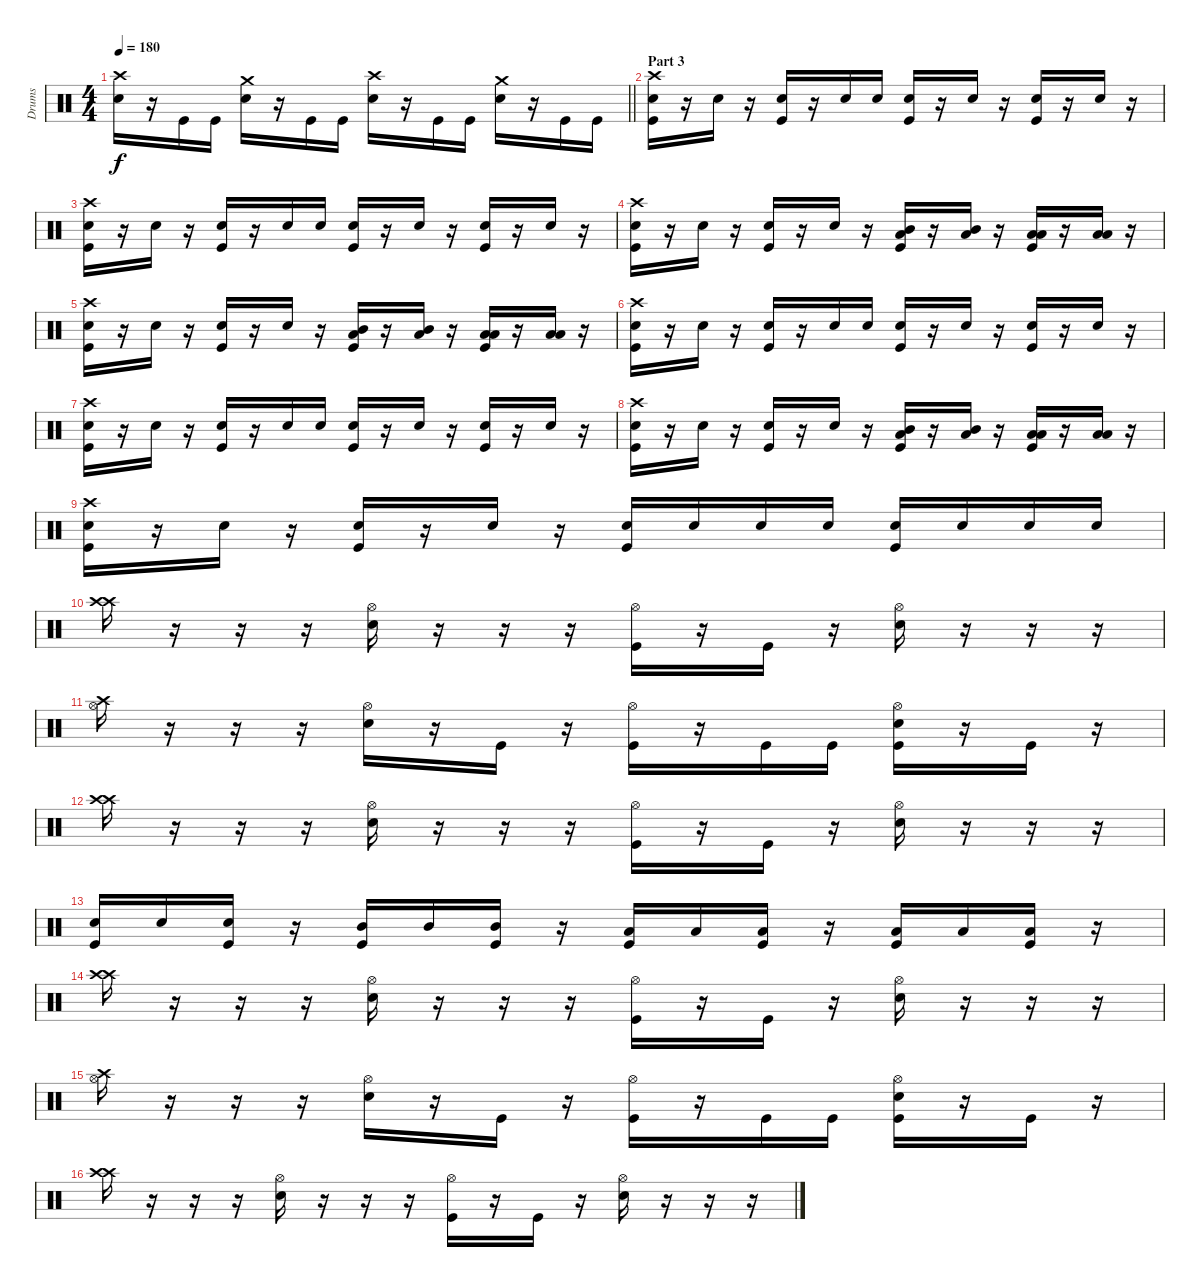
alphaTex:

\track ("Drums" "Drums") {instrument percussion}
\staff {score}
\articulation defaults
\ts (4 4)
\tempo 180
\clef neutral
\barLineRight lightlight
\ks c
("Crash high (hit)" "Electric Snare (hit)").16{dy f} r.16 "Kick (hit)".16 "Kick (hit)".16 ("Crash medium (hit)" "Electric Snare (hit)").16 r.16 "Kick (hit)".16 "Kick (hit)".16 ("Crash high (hit)" "Electric Snare (hit)").16 r.16 "Kick (hit)".16 "Kick (hit)".16 ("Crash medium (hit)" "Electric Snare (hit)").16 r.16 "Kick (hit)".16 "Kick (hit)".16 |
\section ("" "Part 3")
("Crash high (hit)" "Electric Snare (hit)" "Kick (hit)").16 r.16 "Electric Snare (hit)".16 r.16 ("Electric Snare (hit)" "Kick (hit)").16 r.16 "Electric Snare (hit)".16 "Electric Snare (hit)".16 ("Electric Snare (hit)" "Kick (hit)").16 r.16 "Electric Snare (hit)".16 r.16 ("Electric Snare (hit)" "Kick (hit)").16 r.16 "Electric Snare (hit)".16 r.16 |
("Crash high (hit)" "Electric Snare (hit)" "Kick (hit)").16 r.16 "Electric Snare (hit)".16 r.16 ("Electric Snare (hit)" "Kick (hit)").16 r.16 "Electric Snare (hit)".16 "Electric Snare (hit)".16 ("Electric Snare (hit)" "Kick (hit)").16 r.16 "Electric Snare (hit)".16 r.16 ("Electric Snare (hit)" "Kick (hit)").16 r.16 "Electric Snare (hit)".16 r.16 |
("Crash high (hit)" "Electric Snare (hit)" "Kick (hit)").16 r.16 "Electric Snare (hit)".16 r.16 ("Electric Snare (hit)" "Kick (hit)").16 r.16 "Electric Snare (hit)".16 r.16 ("Mid Tom (hit)" "Low Tom (hit)" "Kick (hit)").16 r.16 ("Mid Tom (hit)" "Low Tom (hit)").16 r.16 ("Low Tom (hit)" "Low Floor Tom (hit)" "Kick (hit)").16 r.16 ("Low Tom (hit)" "Low Floor Tom (hit)").16 r.16 |
("Crash high (hit)" "Electric Snare (hit)" "Kick (hit)").16 r.16 "Electric Snare (hit)".16 r.16 ("Electric Snare (hit)" "Kick (hit)").16 r.16 "Electric Snare (hit)".16 r.16 ("Mid Tom (hit)" "Low Tom (hit)" "Kick (hit)").16 r.16 ("Mid Tom (hit)" "Low Tom (hit)").16 r.16 ("Low Tom (hit)" "Low Floor Tom (hit)" "Kick (hit)").16 r.16 ("Low Tom (hit)" "Low Floor Tom (hit)").16 r.16 |
("Crash high (hit)" "Electric Snare (hit)" "Kick (hit)").16 r.16 "Electric Snare (hit)".16 r.16 ("Electric Snare (hit)" "Kick (hit)").16 r.16 "Electric Snare (hit)".16 "Electric Snare (hit)".16 ("Electric Snare (hit)" "Kick (hit)").16 r.16 "Electric Snare (hit)".16 r.16 ("Electric Snare (hit)" "Kick (hit)").16 r.16 "Electric Snare (hit)".16 r.16 |
("Crash high (hit)" "Electric Snare (hit)" "Kick (hit)").16 r.16 "Electric Snare (hit)".16 r.16 ("Electric Snare (hit)" "Kick (hit)").16 r.16 "Electric Snare (hit)".16 "Electric Snare (hit)".16 ("Electric Snare (hit)" "Kick (hit)").16 r.16 "Electric Snare (hit)".16 r.16 ("Electric Snare (hit)" "Kick (hit)").16 r.16 "Electric Snare (hit)".16 r.16 |
("Crash high (hit)" "Electric Snare (hit)" "Kick (hit)").16 r.16 "Electric Snare (hit)".16 r.16 ("Electric Snare (hit)" "Kick (hit)").16 r.16 "Electric Snare (hit)".16 r.16 ("Mid Tom (hit)" "Low Tom (hit)" "Kick (hit)").16 r.16 ("Mid Tom (hit)" "Low Tom (hit)").16 r.16 ("Low Tom (hit)" "Low Floor Tom (hit)" "Kick (hit)").16 r.16 ("Low Tom (hit)" "Low Floor Tom (hit)").16 r.16 |
("Crash high (hit)" "Electric Snare (hit)" "Kick (hit)").16 r.16 "Electric Snare (hit)".16 r.16 ("Electric Snare (hit)" "Kick (hit)").16 r.16 "Electric Snare (hit)".16 r.16 ("Electric Snare (hit)" "Kick (hit)").16 "Electric Snare (hit)".16 "Electric Snare (hit)".16 "Electric Snare (hit)".16 ("Electric Snare (hit)" "Kick (hit)").16 "Electric Snare (hit)".16 "Electric Snare (hit)".16 "Electric Snare (hit)".16 |
("Crash high (hit)" "Crash high (hit)").16 r.16 r.16 r.16 ("Hi-Hat (open)" "Electric Snare (hit)").16 r.16 r.16 r.16 ("Hi-Hat (open)" "Kick (hit)").16 r.16 "Kick (hit)".16 r.16 ("Hi-Hat (open)" "Electric Snare (hit)").16 r.16 r.16 r.16 |
("Hi-Hat (open)" "Crash high (hit)").16 r.16 r.16 r.16 ("Hi-Hat (open)" "Electric Snare (hit)").16 r.16 "Kick (hit)".16 r.16 ("Hi-Hat (open)" "Kick (hit)").16 r.16 "Kick (hit)".16 "Kick (hit)".16 ("Hi-Hat (open)" "Electric Snare (hit)" "Kick (hit)").16 r.16 "Kick (hit)".16 r.16 |
("Crash high (hit)" "Crash high (hit)").16 r.16 r.16 r.16 ("Hi-Hat (open)" "Electric Snare (hit)").16 r.16 r.16 r.16 ("Hi-Hat (open)" "Kick (hit)").16 r.16 "Kick (hit)".16 r.16 ("Hi-Hat (open)" "Electric Snare (hit)").16 r.16 r.16 r.16 |
("Electric Snare (hit)" "Kick (hit)").16 "Electric Snare (hit)".16 ("Electric Snare (hit)" "Kick (hit)").16 r.16 ("Mid Tom (hit)" "Kick (hit)").16 "Mid Tom (hit)".16 ("Mid Tom (hit)" "Kick (hit)").16 r.16 ("Low Tom (hit)" "Kick (hit)").16 "Low Tom (hit)".16 ("Low Tom (hit)" "Kick (hit)").16 r.16 ("Low Floor Tom (hit)" "Kick (hit)").16 "Low Floor Tom (hit)".16 ("Low Floor Tom (hit)" "Kick (hit)").16 r.16 |
("Crash high (hit)" "Crash high (hit)").16 r.16 r.16 r.16 ("Hi-Hat (open)" "Electric Snare (hit)").16 r.16 r.16 r.16 ("Hi-Hat (open)" "Kick (hit)").16 r.16 "Kick (hit)".16 r.16 ("Hi-Hat (open)" "Electric Snare (hit)").16 r.16 r.16 r.16 |
("Hi-Hat (open)" "Crash high (hit)").16 r.16 r.16 r.16 ("Hi-Hat (open)" "Electric Snare (hit)").16 r.16 "Kick (hit)".16 r.16 ("Hi-Hat (open)" "Kick (hit)").16 r.16 "Kick (hit)".16 "Kick (hit)".16 ("Hi-Hat (open)" "Electric Snare (hit)" "Kick (hit)").16 r.16 "Kick (hit)".16 r.16 |
("Crash high (hit)" "Crash high (hit)").16 r.16 r.16 r.16 ("Hi-Hat (open)" "Electric Snare (hit)").16 r.16 r.16 r.16 ("Hi-Hat (open)" "Kick (hit)").16 r.16 "Kick (hit)".16 r.16 ("Hi-Hat (open)" "Electric Snare (hit)").16 r.16 r.16 r.16
